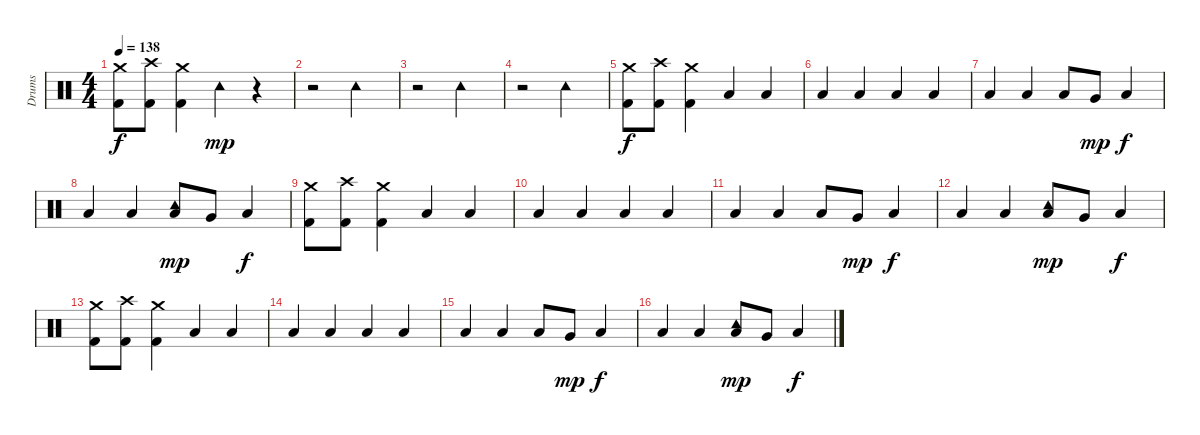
\track ("Drums" "Drums") {instrument percussion}
\staff
\articulation defaults
\ts (4 4)
\tempo 138
\clef neutral
\ks c
("Crash medium (hit)" "Kick (hit) 2").8{dy f} ("Crash high (hit)" "Kick (hit) 2").8 ("Crash medium (hit)" "Kick (hit) 2").4 "Tambourine (hit)".4{dy mp} r.4 |
r.2 "Tambourine (hit)".2 |
r.2 "Tambourine (hit)".2 |
r.2 "Tambourine (hit)".2 |
("Crash medium (hit)" "Kick (hit) 2").8{dy f} ("Crash high (hit)" "Kick (hit) 2").8 ("Crash medium (hit)" "Kick (hit) 2").4 "Low Floor Tom (hit)".4 "Low Floor Tom (hit)".4 |
"Low Floor Tom (hit)".4 "Low Floor Tom (hit)".4 "Low Floor Tom (hit)".4 "Low Floor Tom (hit)".4 |
"Low Floor Tom (hit)".4 "Low Floor Tom (hit)".4 "Low Floor Tom (hit)".8 "Very Low Tom (hit)".8{dy mp} "Low Floor Tom (hit)".4{dy f} |
"Low Floor Tom (hit)".4 "Low Floor Tom (hit)".4 ("Tambourine (hit)" "Low Floor Tom (hit)").8{dy mp} "Very Low Tom (hit)".8 "Low Floor Tom (hit)".4{dy f} |
("Crash medium (hit)" "Kick (hit) 2").8 ("Crash high (hit)" "Kick (hit) 2").8 ("Crash medium (hit)" "Kick (hit) 2").4 "Low Floor Tom (hit)".4 "Low Floor Tom (hit)".4 |
"Low Floor Tom (hit)".4 "Low Floor Tom (hit)".4 "Low Floor Tom (hit)".4 "Low Floor Tom (hit)".4 |
"Low Floor Tom (hit)".4 "Low Floor Tom (hit)".4 "Low Floor Tom (hit)".8 "Very Low Tom (hit)".8{dy mp} "Low Floor Tom (hit)".4{dy f} |
"Low Floor Tom (hit)".4 "Low Floor Tom (hit)".4 ("Tambourine (hit)" "Low Floor Tom (hit)").8{dy mp} "Very Low Tom (hit)".8 "Low Floor Tom (hit)".4{dy f} |
("Crash medium (hit)" "Kick (hit) 2").8 ("Crash high (hit)" "Kick (hit) 2").8 ("Crash medium (hit)" "Kick (hit) 2").4 "Low Floor Tom (hit)".4 "Low Floor Tom (hit)".4 |
"Low Floor Tom (hit)".4 "Low Floor Tom (hit)".4 "Low Floor Tom (hit)".4 "Low Floor Tom (hit)".4 |
"Low Floor Tom (hit)".4 "Low Floor Tom (hit)".4 "Low Floor Tom (hit)".8 "Very Low Tom (hit)".8{dy mp} "Low Floor Tom (hit)".4{dy f} |
"Low Floor Tom (hit)".4 "Low Floor Tom (hit)".4 ("Tambourine (hit)" "Low Floor Tom (hit)").8{dy mp} "Very Low Tom (hit)".8 "Low Floor Tom (hit)".4{dy f}
